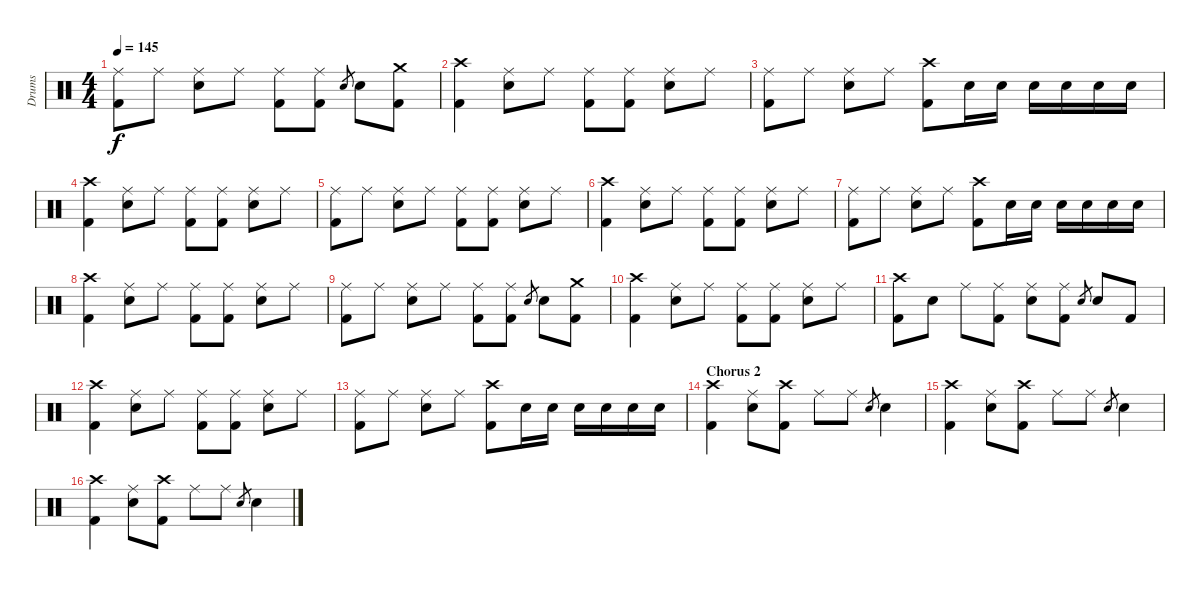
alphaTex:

\track ("Drums" "Drums") {instrument percussion}
\staff {score}
\articulation defaults
\ts (4 4)
\tempo 145
\clef neutral
\ks c
("Ride (middle)" "Kick (hit) 2").8{dy f} "Ride (middle)".8 ("Ride (middle)" "Electric Snare (hit)").8 "Ride (middle)".8 ("Ride (middle)" "Kick (hit) 2").8 ("Ride (middle)" "Kick (hit) 2").8 "Electric Snare (hit)".8{gr} "Electric Snare (hit)".8 ("Crash medium (hit)" "Kick (hit) 2").8 |
("Crash high (hit)" "Kick (hit) 2").4 ("Ride (middle)" "Electric Snare (hit)").8 "Ride (middle)".8 ("Ride (middle)" "Kick (hit) 2").8 ("Ride (middle)" "Kick (hit) 2").8 ("Ride (middle)" "Electric Snare (hit)").8 "Ride (middle)".8 |
("Ride (middle)" "Kick (hit) 2").8 "Ride (middle)".8 ("Ride (middle)" "Electric Snare (hit)").8 "Ride (middle)".8 ("Crash high (hit)" "Kick (hit) 2").8 "Electric Snare (hit)".16 "Electric Snare (hit)".16 "Electric Snare (hit)".16 "Electric Snare (hit)".16 "Electric Snare (hit)".16 "Electric Snare (hit)".16 |
("Crash high (hit)" "Kick (hit) 2").4 ("Ride (middle)" "Electric Snare (hit)").8 "Ride (middle)".8 ("Ride (middle)" "Kick (hit) 2").8 ("Ride (middle)" "Kick (hit) 2").8 ("Ride (middle)" "Electric Snare (hit)").8 "Ride (middle)".8 |
("Ride (middle)" "Kick (hit) 2").8 "Ride (middle)".8 ("Ride (middle)" "Electric Snare (hit)").8 "Ride (middle)".8 ("Ride (middle)" "Kick (hit) 2").8 ("Ride (middle)" "Kick (hit) 2").8 ("Ride (middle)" "Electric Snare (hit)").8 "Ride (middle)".8 |
("Crash high (hit)" "Kick (hit) 2").4 ("Ride (middle)" "Electric Snare (hit)").8 "Ride (middle)".8 ("Ride (middle)" "Kick (hit) 2").8 ("Ride (middle)" "Kick (hit) 2").8 ("Ride (middle)" "Electric Snare (hit)").8 "Ride (middle)".8 |
("Ride (middle)" "Kick (hit) 2").8 "Ride (middle)".8 ("Ride (middle)" "Electric Snare (hit)").8 "Ride (middle)".8 ("Crash high (hit)" "Kick (hit) 2").8 "Electric Snare (hit)".16 "Electric Snare (hit)".16 "Electric Snare (hit)".16 "Electric Snare (hit)".16 "Electric Snare (hit)".16 "Electric Snare (hit)".16 |
("Crash high (hit)" "Kick (hit) 2").4 ("Ride (middle)" "Electric Snare (hit)").8 "Ride (middle)".8 ("Ride (middle)" "Kick (hit) 2").8 ("Ride (middle)" "Kick (hit) 2").8 ("Ride (middle)" "Electric Snare (hit)").8 "Ride (middle)".8 |
("Ride (middle)" "Kick (hit) 2").8 "Ride (middle)".8 ("Ride (middle)" "Electric Snare (hit)").8 "Ride (middle)".8 ("Ride (middle)" "Kick (hit) 2").8 ("Ride (middle)" "Kick (hit) 2").8 "Electric Snare (hit)".8{gr} "Electric Snare (hit)".8 ("Crash medium (hit)" "Kick (hit) 2").8 |
("Crash high (hit)" "Kick (hit) 2").4 ("Ride (middle)" "Electric Snare (hit)").8 "Ride (middle)".8 ("Ride (middle)" "Kick (hit) 2").8 ("Ride (middle)" "Kick (hit) 2").8 ("Ride (middle)" "Electric Snare (hit)").8 "Ride (middle)".8 |
("Crash high (hit)" "Kick (hit) 2").8 "Electric Snare (hit)".8 "Ride (middle)".8 ("Ride (middle)" "Kick (hit) 2").8 ("Ride (middle)" "Electric Snare (hit)").8 ("Ride (middle)" "Kick (hit) 2").8 "Electric Snare (hit)".8{gr} "Electric Snare (hit)".8 "Kick (hit) 2".8 |
("Crash high (hit)" "Kick (hit) 2").4 ("Ride (middle)" "Electric Snare (hit)").8 "Ride (middle)".8 ("Ride (middle)" "Kick (hit) 2").8 ("Ride (middle)" "Kick (hit) 2").8 ("Ride (middle)" "Electric Snare (hit)").8 "Ride (middle)".8 |
("Ride (middle)" "Kick (hit) 2").8 "Ride (middle)".8 ("Ride (middle)" "Electric Snare (hit)").8 "Ride (middle)".8 ("Crash high (hit)" "Kick (hit) 2").8 "Electric Snare (hit)".16 "Electric Snare (hit)".16 "Electric Snare (hit)".16 "Electric Snare (hit)".16 "Electric Snare (hit)".16 "Electric Snare (hit)".16 |
\section ("" "Chorus 2")
("Crash high (hit)" "Kick (hit) 2").4 ("Ride (middle)" "Electric Snare (hit)").8 ("Crash high (hit)" "Kick (hit) 2").8 "Ride (middle)".8 "Ride (middle)".8 "Electric Snare (hit)".8{gr} "Electric Snare (hit)".4 |
("Crash high (hit)" "Kick (hit) 2").4 ("Ride (middle)" "Electric Snare (hit)").8 ("Crash high (hit)" "Kick (hit) 2").8 "Ride (middle)".8 "Ride (middle)".8 "Electric Snare (hit)".8{gr} "Electric Snare (hit)".4 |
("Crash high (hit)" "Kick (hit) 2").4 ("Ride (middle)" "Electric Snare (hit)").8 ("Crash high (hit)" "Kick (hit) 2").8 "Ride (middle)".8 "Ride (middle)".8 "Electric Snare (hit)".8{gr} "Electric Snare (hit)".4
